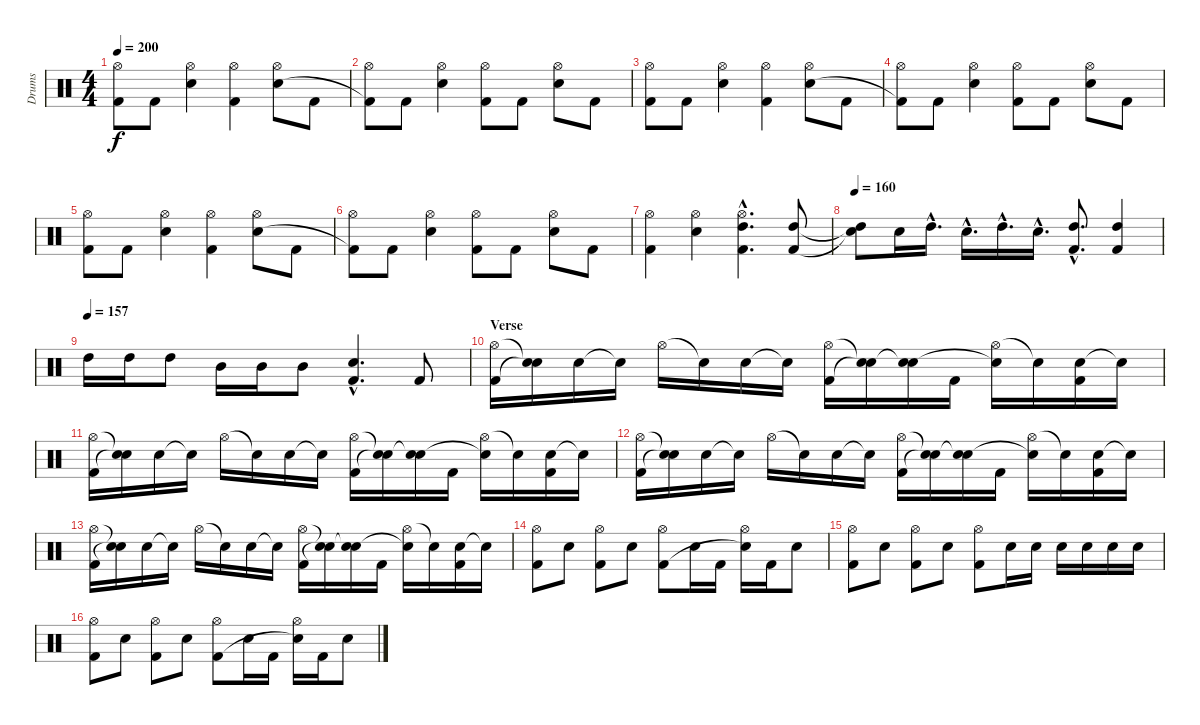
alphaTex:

\track ("Drums" "Drums") {instrument percussion}
\staff {score}
\articulation defaults
\ts (4 4)
\tempo 200
\clef neutral
\ks c
("Hi-Hat (open)" "Kick (hit) 2").8{dy f} "Kick (hit) 2".8 ("Hi-Hat (open)" "Electric Snare (hit)").4 ("Hi-Hat (open)" "Kick (hit) 2").4 ("Hi-Hat (open)" "Electric Snare (hit)").8 "Kick (hit) 2".8 |
("Hi-Hat (open)" "Kick (hit) 2"{t}).8 "Kick (hit) 2".8 ("Hi-Hat (open)" "Electric Snare (hit)").4 ("Hi-Hat (open)" "Kick (hit) 2").8 "Kick (hit) 2".8 ("Hi-Hat (open)" "Electric Snare (hit)").8 "Kick (hit) 2".8 |
("Hi-Hat (open)" "Kick (hit) 2").8 "Kick (hit) 2".8 ("Hi-Hat (open)" "Electric Snare (hit)").4 ("Hi-Hat (open)" "Kick (hit) 2").4 ("Hi-Hat (open)" "Electric Snare (hit)").8 "Kick (hit) 2".8 |
("Hi-Hat (open)" "Kick (hit) 2"{t}).8 "Kick (hit) 2".8 ("Hi-Hat (open)" "Electric Snare (hit)").4 ("Hi-Hat (open)" "Kick (hit) 2").8 "Kick (hit) 2".8 ("Hi-Hat (open)" "Electric Snare (hit)").8 "Kick (hit) 2".8 |
("Hi-Hat (open)" "Kick (hit) 2").8 "Kick (hit) 2".8 ("Hi-Hat (open)" "Electric Snare (hit)").4 ("Hi-Hat (open)" "Kick (hit) 2").4 ("Hi-Hat (open)" "Electric Snare (hit)").8 "Kick (hit) 2".8 |
("Hi-Hat (open)" "Kick (hit) 2"{t}).8 "Kick (hit) 2".8 ("Hi-Hat (open)" "Electric Snare (hit)").4 ("Hi-Hat (open)" "Kick (hit) 2").8 "Kick (hit) 2".8 ("Hi-Hat (open)" "Electric Snare (hit)").8 "Kick (hit) 2".8 |
("Hi-Hat (open)" "Kick (hit) 2").4 ("Hi-Hat (open)" "Electric Snare (hit)").4 ("High Tom (hit)"{hac} "Hi-Hat (open)"{hac} "Kick (hit) 2"{hac}).4{d} ("High Tom (hit)" "Kick (hit) 2").8 |
\tempo 160
("High Tom (hit)"{t} "Snare (hit)"{t}).8 "Electric Snare (hit)".16 "High Tom (hit)"{hac}.16{d} "Electric Snare (hit)"{hac}.16{d} "High Tom (hit)"{hac}.16{d} "Electric Snare (hit)"{hac}.16{d} ("High Tom (hit)"{hac} "Kick (hit) 2"{hac}).8{d} ("High Tom (hit)" "Kick (hit) 2").4 |
\tempo (157)
"High Tom (hit)".16 "High Tom (hit)".16 "High Tom (hit)".8 "Mid Tom (hit)".16 "Mid Tom (hit)".16 "Mid Tom (hit)".8 ("Electric Snare (hit)"{hac} "Kick (hit) 2"{hac}).4{d} "Kick (hit) 2".8 |
\section ("" "Verse")
("Hi-Hat (open)" "Kick (hit) 2").16 ("Snare (hit)"{t} "Snare (hit)"{t}).16 "Electric Snare (hit)".16 "Snare (hit)"{t}.16 "Hi-Hat (open)".16 "Snare (hit)"{t}.16 "Electric Snare (hit)".16 "Snare (hit)"{t}.16 ("Hi-Hat (open)" "Kick (hit) 2").16 ("Snare (hit)"{t} "Snare (hit)"{t}).16 ("Electric Snare (hit)" "Snare (hit)"{t}).16 "Kick (hit) 2".16 ("Hi-Hat (open)" "Snare (hit)"{t}).16 "Snare (hit)"{t}.16 ("Electric Snare (hit)" "Kick (hit) 2").16 "Snare (hit)"{t}.16 |
("Hi-Hat (open)" "Kick (hit) 2").16 ("Snare (hit)"{t} "Snare (hit)"{t}).16 "Electric Snare (hit)".16 "Snare (hit)"{t}.16 "Hi-Hat (open)".16 "Snare (hit)"{t}.16 "Electric Snare (hit)".16 "Snare (hit)"{t}.16 ("Hi-Hat (open)" "Kick (hit) 2").16 ("Snare (hit)"{t} "Snare (hit)"{t}).16 ("Electric Snare (hit)" "Snare (hit)"{t}).16 "Kick (hit) 2".16 ("Hi-Hat (open)" "Snare (hit)"{t}).16 "Snare (hit)"{t}.16 ("Electric Snare (hit)" "Kick (hit) 2").16 "Snare (hit)"{t}.16 |
("Hi-Hat (open)" "Kick (hit) 2").16 ("Snare (hit)"{t} "Snare (hit)"{t}).16 "Electric Snare (hit)".16 "Snare (hit)"{t}.16 "Hi-Hat (open)".16 "Snare (hit)"{t}.16 "Electric Snare (hit)".16 "Snare (hit)"{t}.16 ("Hi-Hat (open)" "Kick (hit) 2").16 ("Snare (hit)"{t} "Snare (hit)"{t}).16 ("Electric Snare (hit)" "Snare (hit)"{t}).16 "Kick (hit) 2".16 ("Hi-Hat (open)" "Snare (hit)"{t}).16 "Snare (hit)"{t}.16 ("Electric Snare (hit)" "Kick (hit) 2").16 "Snare (hit)"{t}.16 |
("Hi-Hat (open)" "Kick (hit) 2").16 ("Snare (hit)"{t} "Snare (hit)"{t}).16 "Electric Snare (hit)".16 "Snare (hit)"{t}.16 "Hi-Hat (open)".16 "Snare (hit)"{t}.16 "Electric Snare (hit)".16 "Snare (hit)"{t}.16 ("Hi-Hat (open)" "Kick (hit) 2").16 ("Snare (hit)"{t} "Snare (hit)"{t}).16 ("Electric Snare (hit)" "Snare (hit)"{t}).16 "Kick (hit) 2".16 ("Hi-Hat (open)" "Snare (hit)"{t}).16 "Snare (hit)"{t}.16 ("Electric Snare (hit)" "Kick (hit) 2").16 "Snare (hit)"{t}.16 |
("Hi-Hat (open)" "Kick (hit) 2").8 "Electric Snare (hit)".8 ("Hi-Hat (open)" "Kick (hit) 2").8 "Electric Snare (hit)".8 ("Hi-Hat (open)" "Kick (hit) 2").8 "Electric Snare (hit)".16 "Kick (hit) 2".16 ("Hi-Hat (open)" "Snare (hit)"{t}).16 "Kick (hit) 2".16 "Electric Snare (hit)".8 |
("Hi-Hat (open)" "Kick (hit) 2").8 "Electric Snare (hit)".8 ("Hi-Hat (open)" "Kick (hit) 2").8 "Electric Snare (hit)".8 ("Hi-Hat (open)" "Kick (hit) 2").8 "Electric Snare (hit)".16 "Electric Snare (hit)".16 "Electric Snare (hit)".16 "Electric Snare (hit)".16 "Electric Snare (hit)".16 "Electric Snare (hit)".16 |
("Hi-Hat (open)" "Kick (hit) 2").8 "Electric Snare (hit)".8 ("Hi-Hat (open)" "Kick (hit) 2").8 "Electric Snare (hit)".8 ("Hi-Hat (open)" "Kick (hit) 2").8 "Electric Snare (hit)".16 "Kick (hit) 2".16 ("Hi-Hat (open)" "Snare (hit)"{t}).16 "Kick (hit) 2".16 "Electric Snare (hit)".8
